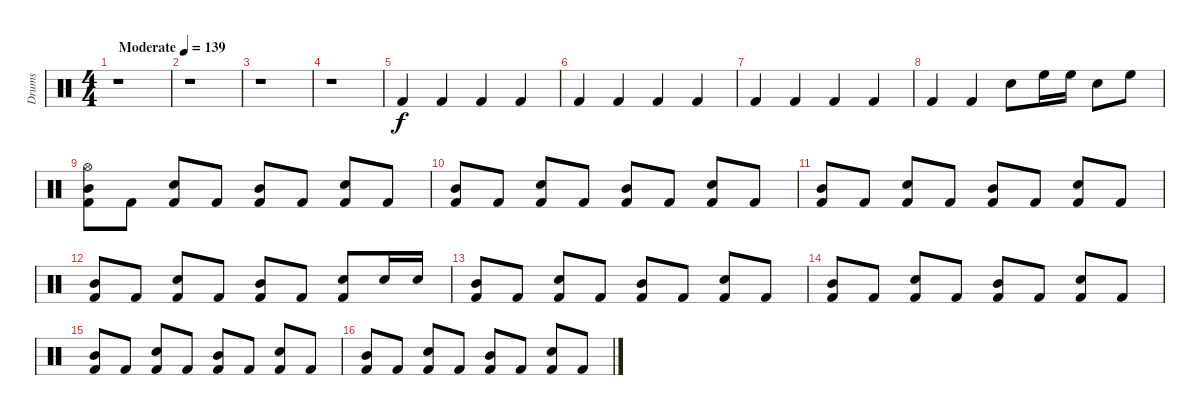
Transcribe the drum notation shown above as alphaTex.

\track ("Drums" "Drums") {instrument percussion}
\staff {score}
\articulation defaults
\ts (4 4)
\tempo (139 "Moderate")
\clef neutral
\ks c
r.1{dy f} |
r.1 |
r.1 |
r.1 |
"Kick (hit) 2".4 "Kick (hit) 2".4 "Kick (hit) 2".4 "Kick (hit) 2".4 |
"Kick (hit) 2".4 "Kick (hit) 2".4 "Kick (hit) 2".4 "Kick (hit) 2".4 |
"Kick (hit) 2".4 "Kick (hit) 2".4 "Kick (hit) 2".4 "Kick (hit) 2".4 |
"Kick (hit) 2".4 "Kick (hit) 2".4 "Electric Snare (hit)".8 "High Floor Tom (hit)".16 "High Floor Tom (hit)".16 "Electric Snare (hit)".8 "High Floor Tom (hit)".8 |
("Kick (hit) 2" "Mid Tom (hit)" "Hi-Hat (open)").8 "Kick (hit) 2".8 ("Electric Snare (hit)" "Kick (hit) 2").8 "Kick (hit) 2".8 ("Kick (hit) 2" "Mid Tom (hit)").8 "Kick (hit) 2".8 ("Electric Snare (hit)" "Kick (hit) 2").8 "Kick (hit) 2".8 |
("Kick (hit) 2" "Mid Tom (hit)").8 "Kick (hit) 2".8 ("Electric Snare (hit)" "Kick (hit) 2").8 "Kick (hit) 2".8 ("Kick (hit) 2" "Mid Tom (hit)").8 "Kick (hit) 2".8 ("Electric Snare (hit)" "Kick (hit) 2").8 "Kick (hit) 2".8 |
("Kick (hit) 2" "Mid Tom (hit)").8 "Kick (hit) 2".8 ("Electric Snare (hit)" "Kick (hit) 2").8 "Kick (hit) 2".8 ("Kick (hit) 2" "Mid Tom (hit)").8 "Kick (hit) 2".8 ("Electric Snare (hit)" "Kick (hit) 2").8 "Kick (hit) 2".8 |
("Kick (hit) 2" "Mid Tom (hit)").8 "Kick (hit) 2".8 ("Electric Snare (hit)" "Kick (hit) 2").8 "Kick (hit) 2".8 ("Kick (hit) 2" "Mid Tom (hit)").8 "Kick (hit) 2".8 ("Electric Snare (hit)" "Kick (hit) 2").8 "Electric Snare (hit)".16 "Electric Snare (hit)".16 |
("Kick (hit) 2" "Mid Tom (hit)").8 "Kick (hit) 2".8 ("Electric Snare (hit)" "Kick (hit) 2").8 "Kick (hit) 2".8 ("Kick (hit) 2" "Mid Tom (hit)").8 "Kick (hit) 2".8 ("Electric Snare (hit)" "Kick (hit) 2").8 "Kick (hit) 2".8 |
("Kick (hit) 2" "Mid Tom (hit)").8 "Kick (hit) 2".8 ("Electric Snare (hit)" "Kick (hit) 2").8 "Kick (hit) 2".8 ("Kick (hit) 2" "Mid Tom (hit)").8 "Kick (hit) 2".8 ("Electric Snare (hit)" "Kick (hit) 2").8 "Kick (hit) 2".8 |
("Kick (hit) 2" "Mid Tom (hit)").8 "Kick (hit) 2".8 ("Electric Snare (hit)" "Kick (hit) 2").8 "Kick (hit) 2".8 ("Kick (hit) 2" "Mid Tom (hit)").8 "Kick (hit) 2".8 ("Electric Snare (hit)" "Kick (hit) 2").8 "Kick (hit) 2".8 |
("Kick (hit) 2" "Mid Tom (hit)").8 "Kick (hit) 2".8 ("Electric Snare (hit)" "Kick (hit) 2").8 "Kick (hit) 2".8 ("Kick (hit) 2" "Mid Tom (hit)").8 "Kick (hit) 2".8 ("Electric Snare (hit)" "Kick (hit) 2").8 "Kick (hit) 2".8
